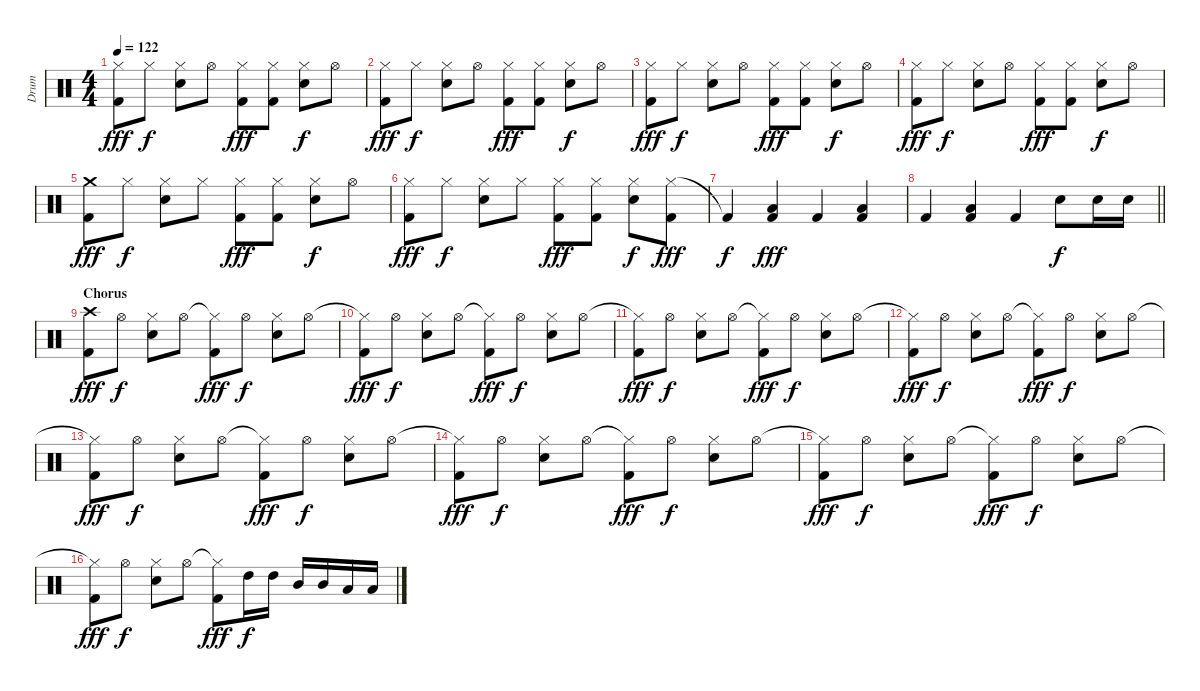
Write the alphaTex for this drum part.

\track ("Drum" "Drum") {instrument percussion}
\staff {score}
\articulation defaults
\ts (4 4)
\tempo 122
\clef neutral
\ks c
("Hi-Hat (closed)" "Kick (hit) 2").8{dy fff} "Hi-Hat (closed)".8{dy f} ("Hi-Hat (closed)" "Electric Snare (hit)").8 "Hi-Hat (open)".8 ("Hi-Hat (closed)" "Kick (hit) 2").8{dy fff} ("Hi-Hat (closed)" "Kick (hit) 2").8 ("Hi-Hat (closed)" "Electric Snare (hit)").8{dy f} "Hi-Hat (open)".8 |
("Hi-Hat (closed)" "Kick (hit) 2").8{dy fff} "Hi-Hat (closed)".8{dy f} ("Hi-Hat (closed)" "Electric Snare (hit)").8 "Hi-Hat (open)".8 ("Hi-Hat (closed)" "Kick (hit) 2").8{dy fff} ("Hi-Hat (closed)" "Kick (hit) 2").8 ("Hi-Hat (closed)" "Electric Snare (hit)").8{dy f} "Hi-Hat (open)".8 |
("Hi-Hat (closed)" "Kick (hit) 2").8{dy fff} "Hi-Hat (closed)".8{dy f} ("Hi-Hat (closed)" "Electric Snare (hit)").8 "Hi-Hat (open)".8 ("Hi-Hat (closed)" "Kick (hit) 2").8{dy fff} ("Hi-Hat (closed)" "Kick (hit) 2").8 ("Hi-Hat (closed)" "Electric Snare (hit)").8{dy f} "Hi-Hat (open)".8 |
("Hi-Hat (closed)" "Kick (hit) 2").8{dy fff} "Hi-Hat (closed)".8{dy f} ("Hi-Hat (closed)" "Electric Snare (hit)").8 "Hi-Hat (open)".8 ("Hi-Hat (closed)" "Kick (hit) 2").8{dy fff} ("Hi-Hat (closed)" "Kick (hit) 2").8 ("Hi-Hat (closed)" "Electric Snare (hit)").8{dy f} "Hi-Hat (open)".8 |
("Crash medium (hit)" "Kick (hit) 2").8{dy fff} "Hi-Hat (closed)".8{dy f} ("Hi-Hat (closed)" "Electric Snare (hit)").8 "Hi-Hat (closed)".8 ("Hi-Hat (closed)" "Kick (hit) 2").8{dy fff} ("Hi-Hat (closed)" "Kick (hit) 2").8 ("Hi-Hat (closed)" "Electric Snare (hit)").8{dy f} "Hi-Hat (open)".8 |
("Hi-Hat (closed)" "Kick (hit) 2").8{dy fff} "Hi-Hat (closed)".8{dy f} ("Hi-Hat (closed)" "Electric Snare (hit)").8 "Hi-Hat (closed)".8 ("Hi-Hat (closed)" "Kick (hit) 2").8{dy fff} ("Hi-Hat (closed)" "Kick (hit) 2").8 ("Hi-Hat (closed)" "Electric Snare (hit)").8{dy f} ("Hi-Hat (closed)" "Kick (hit) 2").8{dy fff} |
"Kick (hit) 2"{t}.4{dy f} ("Low Tom (hit)" "Kick (hit) 2").4{dy fff} "Kick (hit) 2".4 ("Low Tom (hit)" "Kick (hit) 2").4 |
\barLineRight lightlight "Kick (hit) 2".4
("Low Tom (hit)" "Kick (hit) 2").4 "Kick (hit) 2".4 "Electric Snare (hit)".8{dy f} "Electric Snare (hit)".16 "Electric Snare (hit)".16 |
\section ("" "Chorus")
("Crash high (hit)" "Kick (hit) 2").8{dy fff} "Hi-Hat (open)".8{dy f} ("Hi-Hat (closed)" "Electric Snare (hit)").8 "Hi-Hat (open)".8 ("Hi-Hat (closed)"{t} "Kick (hit) 2").8{dy fff} "Hi-Hat (open)".8{dy f} ("Hi-Hat (closed)" "Electric Snare (hit)").8 "Hi-Hat (open)".8 |
("Hi-Hat (closed)"{t} "Kick (hit) 2").8{dy fff} "Hi-Hat (open)".8{dy f} ("Hi-Hat (closed)" "Electric Snare (hit)").8 "Hi-Hat (open)".8 ("Hi-Hat (closed)"{t} "Kick (hit) 2").8{dy fff} "Hi-Hat (open)".8{dy f} ("Hi-Hat (closed)" "Electric Snare (hit)").8 "Hi-Hat (open)".8 |
("Hi-Hat (closed)"{t} "Kick (hit) 2").8{dy fff} "Hi-Hat (open)".8{dy f} ("Hi-Hat (closed)" "Electric Snare (hit)").8 "Hi-Hat (open)".8 ("Hi-Hat (closed)"{t} "Kick (hit) 2").8{dy fff} "Hi-Hat (open)".8{dy f} ("Hi-Hat (closed)" "Electric Snare (hit)").8 "Hi-Hat (open)".8 |
("Hi-Hat (closed)"{t} "Kick (hit) 2").8{dy fff} "Hi-Hat (open)".8{dy f} ("Hi-Hat (closed)" "Electric Snare (hit)").8 "Hi-Hat (open)".8 ("Hi-Hat (closed)"{t} "Kick (hit) 2").8{dy fff} "Hi-Hat (open)".8{dy f} ("Hi-Hat (closed)" "Electric Snare (hit)").8 "Hi-Hat (open)".8 |
("Hi-Hat (closed)"{t} "Kick (hit) 2").8{dy fff} "Hi-Hat (open)".8{dy f} ("Hi-Hat (closed)" "Electric Snare (hit)").8 "Hi-Hat (open)".8 ("Hi-Hat (closed)"{t} "Kick (hit) 2").8{dy fff} "Hi-Hat (open)".8{dy f} ("Hi-Hat (closed)" "Electric Snare (hit)").8 "Hi-Hat (open)".8 |
("Hi-Hat (closed)"{t} "Kick (hit) 2").8{dy fff} "Hi-Hat (open)".8{dy f} ("Hi-Hat (closed)" "Electric Snare (hit)").8 "Hi-Hat (open)".8 ("Hi-Hat (closed)"{t} "Kick (hit) 2").8{dy fff} "Hi-Hat (open)".8{dy f} ("Hi-Hat (closed)" "Electric Snare (hit)").8 "Hi-Hat (open)".8 |
("Hi-Hat (closed)"{t} "Kick (hit) 2").8{dy fff} "Hi-Hat (open)".8{dy f} ("Hi-Hat (closed)" "Electric Snare (hit)").8 "Hi-Hat (open)".8 ("Hi-Hat (closed)"{t} "Kick (hit) 2").8{dy fff} "Hi-Hat (open)".8{dy f} ("Hi-Hat (closed)" "Electric Snare (hit)").8 "Hi-Hat (open)".8 |
("Hi-Hat (closed)"{t} "Kick (hit) 2").8{dy fff} "Hi-Hat (open)".8{dy f} ("Hi-Hat (closed)" "Electric Snare (hit)").8 "Hi-Hat (open)".8 ("Hi-Hat (closed)"{t} "Kick (hit) 2").8{dy fff} "High Tom (hit)".16{dy f} "High Tom (hit)".16 "Mid Tom (hit)".16 "Mid Tom (hit)".16 "Low Tom (hit)".16 "Low Tom (hit)".16
